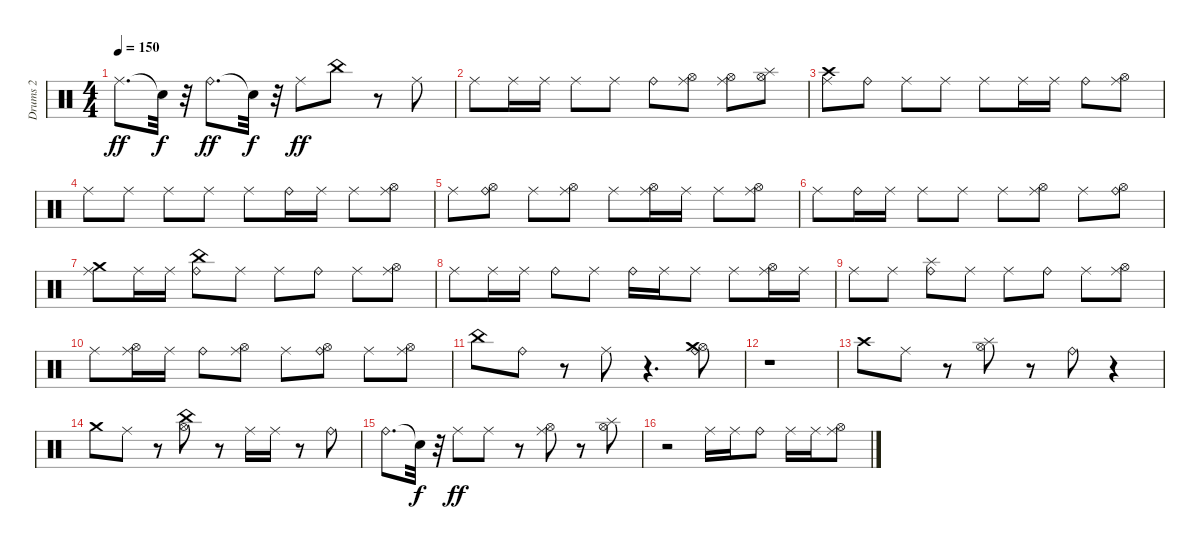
\track ("Drums 2" "Drums 2") {instrument percussion}
\staff {score}
\articulation defaults
\ts (4 4)
\tempo 150
\clef neutral
\ks c "Ride (middle)".8{d dy ff} "Snare (hit)"{t}.32{dy f}
r.32 "Ride (bell)".8{d dy ff} "Snare (hit)"{t}.32{dy f} r.32 "Ride (middle)".8{dy ff} "China (hit)".8 r.8 "Ride (middle)".8 |
"Ride (middle)".8 "Ride (middle)".16 "Ride (middle)".16 "Ride (middle)".8 "Ride (middle)".8 "Ride (bell)".8 ("Hi-Hat (open)" "Ride (middle)").8 ("Hi-Hat (open)" "Ride (middle)").8 ("Hi-Hat (open)" "Splash (hit)").8 |
("Crash high (hit)" "Ride (middle)").8 "Ride (bell)".8 "Ride (middle)".8 "Ride (middle)".8 "Ride (middle)".8 "Ride (middle)".16 "Ride (middle)".16 "Ride (bell)".8 ("Hi-Hat (open)" "Ride (middle)").8 |
"Ride (middle)".8 "Ride (middle)".8 "Ride (middle)".8 "Ride (middle)".8 "Ride (middle)".8 "Ride (bell)".16 "Ride (middle)".16 "Ride (middle)".8 ("Hi-Hat (open)" "Ride (middle)").8 |
"Ride (middle)".8 ("Hi-Hat (open)" "Ride (bell)").8 "Ride (middle)".8 ("Hi-Hat (open)" "Ride (middle)").8 "Ride (middle)".8 ("Hi-Hat (open)" "Ride (middle)").16 "Ride (middle)".16 "Ride (middle)".8 ("Hi-Hat (open)" "Ride (middle)").8 |
"Ride (middle)".8 "Ride (bell)".16 "Ride (middle)".16 "Ride (middle)".8 "Ride (middle)".8 "Ride (middle)".8 ("Hi-Hat (open)" "Ride (middle)").8 "Ride (middle)".8 ("Hi-Hat (open)" "Ride (bell)").8 |
("Ride (middle)" "Crash medium (hit)").8 "Ride (middle)".16 "Ride (middle)".16 ("China (hit)" "Ride (bell)").8 "Ride (middle)".8 "Ride (middle)".8 "Ride (bell)".8 "Ride (middle)".8 ("Hi-Hat (open)" "Ride (middle)").8 |
"Ride (middle)".8 "Ride (middle)".16 "Ride (middle)".16 "Ride (bell)".8 "Ride (middle)".8 "Ride (bell)".16 "Ride (middle)".16 "Ride (middle)".8 "Ride (middle)".8 ("Hi-Hat (open)" "Ride (middle)").16 "Ride (middle)".16 |
"Ride (middle)".8 "Ride (middle)".8 ("Ride (bell)" "Splash (hit)").8 "Ride (middle)".8 "Ride (middle)".8 "Ride (bell)".8 "Ride (middle)".8 ("Hi-Hat (open)" "Ride (middle)").8 |
"Ride (middle)".8 ("Hi-Hat (open)" "Ride (middle)").16 "Ride (middle)".16 "Ride (bell)".8 ("Hi-Hat (open)" "Ride (middle)").8 "Ride (middle)".8 ("Hi-Hat (open)" "Ride (bell)").8 "Ride (middle)".8 ("Hi-Hat (open)" "Ride (middle)").8 |
"China (hit)".8 "Ride (bell)".8 r.8 "Ride (middle)".8 r.4{d} ("Hi-Hat (open)" "Ride (bell)" "Crash medium (hit)").8 |
r.1 |
"Crash high (hit)".8 "Ride (middle)".8 r.8 ("Hi-Hat (open)" "Splash (hit)").8 r.8 "Ride (bell)".8 r.4 |
"Crash medium (hit)".8 "Ride (middle)".8 r.8 ("Hi-Hat (open)" "China (hit)").8 r.8 "Ride (middle)".16 "Ride (middle)".16 r.8 "Ride (bell)".8 |
"Ride (bell)".8{d} "Snare (hit)"{t}.32{dy f} r.32 "Ride (middle)".8{dy ff} "Ride (middle)".8 r.8 ("Hi-Hat (open)" "Ride (middle)").8 r.8 ("Hi-Hat (open)" "Splash (hit)").8 |
r.2 "Ride (middle)".16 "Ride (middle)".16 "Ride (bell)".8 "Ride (middle)".16 "Ride (middle)".16 ("Hi-Hat (open)" "Ride (middle)").8
